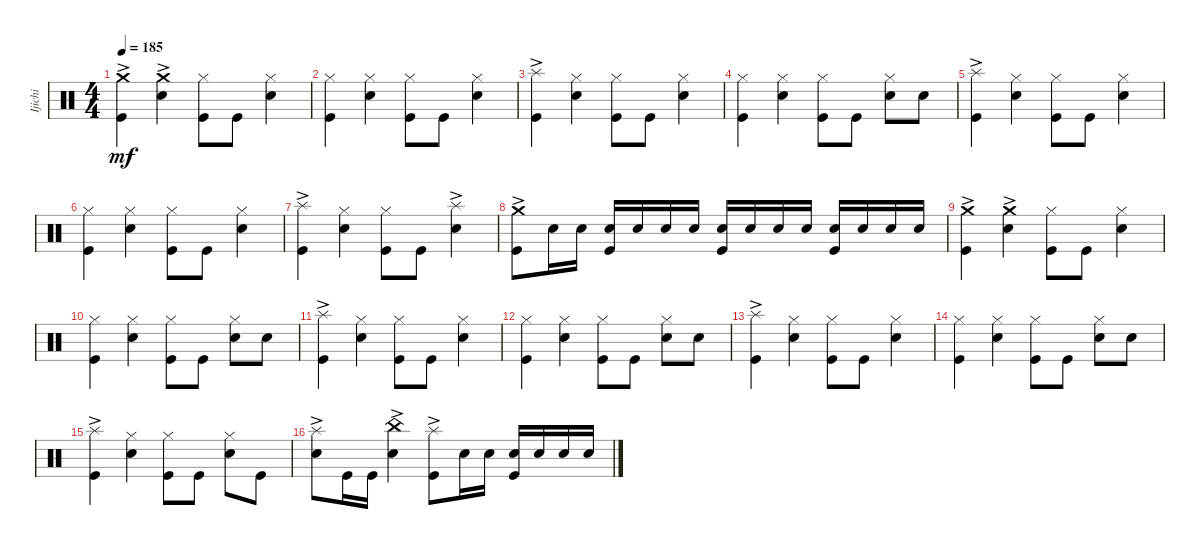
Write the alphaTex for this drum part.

\track ("Ijichi" "Ijichi") {instrument percussion}
\staff {score}
\articulation defaults
\ts (4 4)
\tempo 185
\clef neutral
\ks c
("Crash medium (hit)"{ac} "Kick (hit)").4{dy mf} ("Crash medium (hit)"{ac} "Snare (hit) 2").4 ("Hi-Hat (closed)" "Kick (hit)").8 "Kick (hit)".8 ("Hi-Hat (closed)" "Snare (hit) 2").4 |
("Hi-Hat (closed)" "Kick (hit)").4 ("Hi-Hat (closed)" "Snare (hit) 2").4 ("Hi-Hat (closed)" "Kick (hit)").8 "Kick (hit)".8 ("Hi-Hat (closed)" "Snare (hit) 2").4 |
("Splash (hit)"{ac} "Kick (hit)").4 ("Hi-Hat (closed)" "Snare (hit) 2").4 ("Hi-Hat (closed)" "Kick (hit)").8 "Kick (hit)".8 ("Hi-Hat (closed)" "Snare (hit) 2").4 |
("Hi-Hat (closed)" "Kick (hit)").4 ("Hi-Hat (closed)" "Snare (hit) 2").4 ("Hi-Hat (closed)" "Kick (hit)").8 "Kick (hit)".8 ("Hi-Hat (closed)" "Snare (hit) 2").8 "Snare (hit) 2".8 |
("Splash (hit)"{ac} "Kick (hit)").4 ("Hi-Hat (closed)" "Snare (hit) 2").4 ("Hi-Hat (closed)" "Kick (hit)").8 "Kick (hit)".8 ("Hi-Hat (closed)" "Snare (hit) 2").4 |
("Hi-Hat (closed)" "Kick (hit)").4 ("Hi-Hat (closed)" "Snare (hit) 2").4 ("Hi-Hat (closed)" "Kick (hit)").8 "Kick (hit)".8 ("Hi-Hat (closed)" "Snare (hit) 2").4 |
("Splash (hit)"{ac} "Kick (hit)").4 ("Hi-Hat (closed)" "Snare (hit) 2").4 ("Hi-Hat (closed)" "Kick (hit)").8 "Kick (hit)".8 ("Splash (hit)"{ac} "Snare (hit) 2").4 |
("Crash medium (hit)"{ac} "Kick (hit)").8 "Snare (hit) 2".16 "Snare (hit) 2".16 ("Snare (hit) 2" "Kick (hit)").16 "Snare (hit) 2".16 "Snare (hit) 2".16 "Snare (hit) 2".16 ("Snare (hit) 2" "Kick (hit)").16 "Snare (hit) 2".16 "Snare (hit) 2".16 "Snare (hit) 2".16 ("Snare (hit) 2" "Kick (hit)").16 "Snare (hit) 2".16 "Snare (hit) 2".16 "Snare (hit) 2".16 |
("Crash medium (hit)"{ac} "Kick (hit)").4 ("Crash medium (hit)"{ac} "Snare (hit) 2").4 ("Hi-Hat (closed)" "Kick (hit)").8 "Kick (hit)".8 ("Hi-Hat (closed)" "Snare (hit) 2").4 |
("Hi-Hat (closed)" "Kick (hit)").4 ("Hi-Hat (closed)" "Snare (hit) 2").4 ("Hi-Hat (closed)" "Kick (hit)").8 "Kick (hit)".8 ("Hi-Hat (closed)" "Snare (hit) 2").8 "Snare (hit) 2".8 |
("Splash (hit)"{ac} "Kick (hit)").4 ("Hi-Hat (closed)" "Snare (hit) 2").4 ("Hi-Hat (closed)" "Kick (hit)").8 "Kick (hit)".8 ("Hi-Hat (closed)" "Snare (hit) 2").4 |
("Hi-Hat (closed)" "Kick (hit)").4 ("Hi-Hat (closed)" "Snare (hit) 2").4 ("Hi-Hat (closed)" "Kick (hit)").8 "Kick (hit)".8 ("Hi-Hat (closed)" "Snare (hit) 2").8 "Snare (hit) 2".8 |
("Splash (hit)"{ac} "Kick (hit)").4 ("Hi-Hat (closed)" "Snare (hit) 2").4 ("Hi-Hat (closed)" "Kick (hit)").8 "Kick (hit)".8 ("Hi-Hat (closed)" "Snare (hit) 2").4 |
("Hi-Hat (closed)" "Kick (hit)").4 ("Hi-Hat (closed)" "Snare (hit) 2").4 ("Hi-Hat (closed)" "Kick (hit)").8 "Kick (hit)".8 ("Hi-Hat (closed)" "Snare (hit) 2").8 "Snare (hit) 2".8 |
("Splash (hit)"{ac} "Kick (hit)").4 ("Hi-Hat (closed)" "Snare (hit) 2").4 ("Hi-Hat (closed)" "Kick (hit)").8 "Kick (hit)".8 ("Hi-Hat (closed)" "Snare (hit) 2").8 "Kick (hit)".8 |
("Splash (hit)"{ac} "Snare (hit) 2").8 "Kick (hit)".16 "Kick (hit)".16 ("China (hit)"{ac} "Snare (hit) 2").4 ("Splash (hit)"{ac} "Kick (hit)").8 "Snare (hit) 2".16 "Snare (hit) 2".16 ("Snare (hit) 2" "Kick (hit)").16 "Snare (hit) 2".16 "Snare (hit) 2".16 "Snare (hit) 2".16
